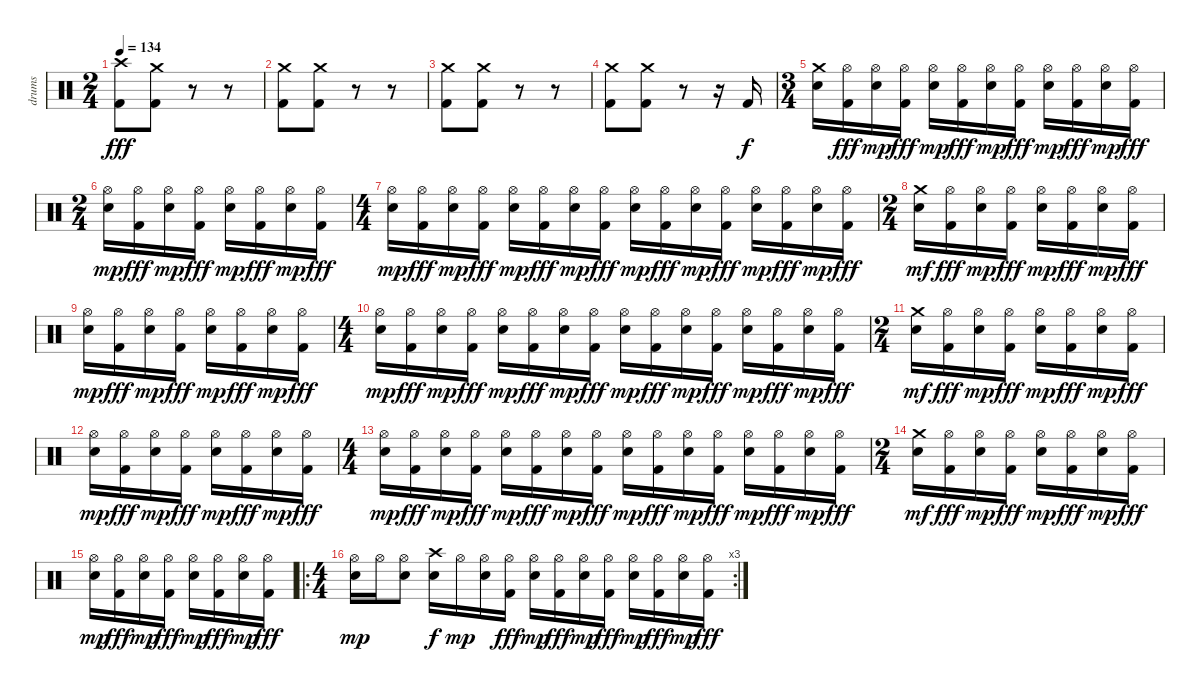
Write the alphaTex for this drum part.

\track ("drums" "drums") {instrument percussion}
\staff {score}
\articulation defaults
\ts (2 4)
\tempo 134
\clef neutral
\ks c
("Crash high (hit)" "Kick (hit) 2").8{dy fff} ("Crash medium (hit)" "Kick (hit) 2").8 r.8 r.8 |
("Crash medium (hit)" "Kick (hit) 2").8 ("Crash medium (hit)" "Kick (hit) 2").8 r.8 r.8 |
("Crash medium (hit)" "Kick (hit) 2").8 ("Crash medium (hit)" "Kick (hit) 2").8 r.8 r.8 |
("Crash medium (hit)" "Kick (hit) 2").8 ("Crash medium (hit)" "Kick (hit) 2").8 r.8 r.16 "Kick (hit) 2".16{dy f} |
\ts (3 4)
("Crash medium (hit)" "Snare (hit) 2").16 ("Hi-Hat (open)" "Kick (hit) 2").16{dy fff} ("Hi-Hat (open)" "Snare (hit) 2").16{dy mp} ("Hi-Hat (open)" "Kick (hit) 2").16{dy fff} ("Hi-Hat (open)" "Snare (hit) 2").16{dy mp} ("Hi-Hat (open)" "Kick (hit) 2").16{dy fff} ("Hi-Hat (open)" "Snare (hit) 2").16{dy mp} ("Hi-Hat (open)" "Kick (hit) 2").16{dy fff} ("Hi-Hat (open)" "Snare (hit) 2").16{dy mp} ("Hi-Hat (open)" "Kick (hit) 2").16{dy fff} ("Hi-Hat (open)" "Snare (hit) 2").16{dy mp} ("Hi-Hat (open)" "Kick (hit) 2").16{dy fff} |
\ts (2 4)
("Hi-Hat (open)" "Snare (hit) 2").16{dy mp} ("Hi-Hat (open)" "Kick (hit) 2").16{dy fff} ("Hi-Hat (open)" "Snare (hit) 2").16{dy mp} ("Hi-Hat (open)" "Kick (hit) 2").16{dy fff} ("Hi-Hat (open)" "Snare (hit) 2").16{dy mp} ("Hi-Hat (open)" "Kick (hit) 2").16{dy fff} ("Hi-Hat (open)" "Snare (hit) 2").16{dy mp} ("Hi-Hat (open)" "Kick (hit) 2").16{dy fff} |
\ts (4 4)
("Hi-Hat (open)" "Snare (hit) 2").16{dy mp} ("Hi-Hat (open)" "Kick (hit) 2").16{dy fff} ("Hi-Hat (open)" "Snare (hit) 2").16{dy mp} ("Hi-Hat (open)" "Kick (hit) 2").16{dy fff} ("Hi-Hat (open)" "Snare (hit) 2").16{dy mp} ("Hi-Hat (open)" "Kick (hit) 2").16{dy fff} ("Hi-Hat (open)" "Snare (hit) 2").16{dy mp} ("Hi-Hat (open)" "Kick (hit) 2").16{dy fff} ("Hi-Hat (open)" "Snare (hit) 2").16{dy mp} ("Hi-Hat (open)" "Kick (hit) 2").16{dy fff} ("Hi-Hat (open)" "Snare (hit) 2").16{dy mp} ("Hi-Hat (open)" "Kick (hit) 2").16{dy fff} ("Hi-Hat (open)" "Snare (hit) 2").16{dy mp} ("Hi-Hat (open)" "Kick (hit) 2").16{dy fff} ("Hi-Hat (open)" "Snare (hit) 2").16{dy mp} ("Hi-Hat (open)" "Kick (hit) 2").16{dy fff} |
\ts (2 4)
("Crash medium (hit)" "Snare (hit) 2").16{dy mf} ("Hi-Hat (open)" "Kick (hit) 2").16{dy fff} ("Hi-Hat (open)" "Snare (hit) 2").16{dy mp} ("Hi-Hat (open)" "Kick (hit) 2").16{dy fff} ("Hi-Hat (open)" "Snare (hit) 2").16{dy mp} ("Hi-Hat (open)" "Kick (hit) 2").16{dy fff} ("Hi-Hat (open)" "Snare (hit) 2").16{dy mp} ("Hi-Hat (open)" "Kick (hit) 2").16{dy fff} |
("Hi-Hat (open)" "Snare (hit) 2").16{dy mp} ("Hi-Hat (open)" "Kick (hit) 2").16{dy fff} ("Hi-Hat (open)" "Snare (hit) 2").16{dy mp} ("Hi-Hat (open)" "Kick (hit) 2").16{dy fff} ("Hi-Hat (open)" "Snare (hit) 2").16{dy mp} ("Hi-Hat (open)" "Kick (hit) 2").16{dy fff} ("Hi-Hat (open)" "Snare (hit) 2").16{dy mp} ("Hi-Hat (open)" "Kick (hit) 2").16{dy fff} |
\ts (4 4)
("Hi-Hat (open)" "Snare (hit) 2").16{dy mp} ("Hi-Hat (open)" "Kick (hit) 2").16{dy fff} ("Hi-Hat (open)" "Snare (hit) 2").16{dy mp} ("Hi-Hat (open)" "Kick (hit) 2").16{dy fff} ("Hi-Hat (open)" "Snare (hit) 2").16{dy mp} ("Hi-Hat (open)" "Kick (hit) 2").16{dy fff} ("Hi-Hat (open)" "Snare (hit) 2").16{dy mp} ("Hi-Hat (open)" "Kick (hit) 2").16{dy fff} ("Hi-Hat (open)" "Snare (hit) 2").16{dy mp} ("Hi-Hat (open)" "Kick (hit) 2").16{dy fff} ("Hi-Hat (open)" "Snare (hit) 2").16{dy mp} ("Hi-Hat (open)" "Kick (hit) 2").16{dy fff} ("Hi-Hat (open)" "Snare (hit) 2").16{dy mp} ("Hi-Hat (open)" "Kick (hit) 2").16{dy fff} ("Hi-Hat (open)" "Snare (hit) 2").16{dy mp} ("Hi-Hat (open)" "Kick (hit) 2").16{dy fff} |
\ts (2 4)
("Crash medium (hit)" "Snare (hit) 2").16{dy mf} ("Hi-Hat (open)" "Kick (hit) 2").16{dy fff} ("Hi-Hat (open)" "Snare (hit) 2").16{dy mp} ("Hi-Hat (open)" "Kick (hit) 2").16{dy fff} ("Hi-Hat (open)" "Snare (hit) 2").16{dy mp} ("Hi-Hat (open)" "Kick (hit) 2").16{dy fff} ("Hi-Hat (open)" "Snare (hit) 2").16{dy mp} ("Hi-Hat (open)" "Kick (hit) 2").16{dy fff} |
("Hi-Hat (open)" "Snare (hit) 2").16{dy mp} ("Hi-Hat (open)" "Kick (hit) 2").16{dy fff} ("Hi-Hat (open)" "Snare (hit) 2").16{dy mp} ("Hi-Hat (open)" "Kick (hit) 2").16{dy fff} ("Hi-Hat (open)" "Snare (hit) 2").16{dy mp} ("Hi-Hat (open)" "Kick (hit) 2").16{dy fff} ("Hi-Hat (open)" "Snare (hit) 2").16{dy mp} ("Hi-Hat (open)" "Kick (hit) 2").16{dy fff} |
\ts (4 4)
("Hi-Hat (open)" "Snare (hit) 2").16{dy mp} ("Hi-Hat (open)" "Kick (hit) 2").16{dy fff} ("Hi-Hat (open)" "Snare (hit) 2").16{dy mp} ("Hi-Hat (open)" "Kick (hit) 2").16{dy fff} ("Hi-Hat (open)" "Snare (hit) 2").16{dy mp} ("Hi-Hat (open)" "Kick (hit) 2").16{dy fff} ("Hi-Hat (open)" "Snare (hit) 2").16{dy mp} ("Hi-Hat (open)" "Kick (hit) 2").16{dy fff} ("Hi-Hat (open)" "Snare (hit) 2").16{dy mp} ("Hi-Hat (open)" "Kick (hit) 2").16{dy fff} ("Hi-Hat (open)" "Snare (hit) 2").16{dy mp} ("Hi-Hat (open)" "Kick (hit) 2").16{dy fff} ("Hi-Hat (open)" "Snare (hit) 2").16{dy mp} ("Hi-Hat (open)" "Kick (hit) 2").16{dy fff} ("Hi-Hat (open)" "Snare (hit) 2").16{dy mp} ("Hi-Hat (open)" "Kick (hit) 2").16{dy fff} |
\ts (2 4)
("Crash medium (hit)" "Snare (hit) 2").16{dy mf} ("Hi-Hat (open)" "Kick (hit) 2").16{dy fff} ("Hi-Hat (open)" "Snare (hit) 2").16{dy mp} ("Hi-Hat (open)" "Kick (hit) 2").16{dy fff} ("Hi-Hat (open)" "Snare (hit) 2").16{dy mp} ("Hi-Hat (open)" "Kick (hit) 2").16{dy fff} ("Hi-Hat (open)" "Snare (hit) 2").16{dy mp} ("Hi-Hat (open)" "Kick (hit) 2").16{dy fff} |
("Hi-Hat (open)" "Snare (hit) 2").16{dy mp} ("Hi-Hat (open)" "Kick (hit) 2").16{dy fff} ("Hi-Hat (open)" "Snare (hit) 2").16{dy mp} ("Hi-Hat (open)" "Kick (hit) 2").16{dy fff} ("Hi-Hat (open)" "Snare (hit) 2").16{dy mp} ("Hi-Hat (open)" "Kick (hit) 2").16{dy fff} ("Hi-Hat (open)" "Snare (hit) 2").16{dy mp} ("Hi-Hat (open)" "Kick (hit) 2").16{dy fff} |
\ro
\rc 3
\ts (4 4)
("Hi-Hat (open)" "Snare (hit) 2").16{dy mp} "Hi-Hat (open)".16 ("Hi-Hat (open)" "Snare (hit) 2").8 ("Crash high (hit)" "Snare (hit) 2").16{dy f} "Hi-Hat (open)".16{dy mp} ("Hi-Hat (open)" "Snare (hit) 2").16 ("Hi-Hat (open)" "Kick (hit) 2").16{dy fff} ("Hi-Hat (open)" "Snare (hit) 2").16{dy mp} ("Hi-Hat (open)" "Kick (hit) 2").16{dy fff} ("Hi-Hat (open)" "Snare (hit) 2").16{dy mp} ("Hi-Hat (open)" "Kick (hit) 2").16{dy fff} ("Hi-Hat (open)" "Snare (hit) 2").16{dy mp} ("Hi-Hat (open)" "Kick (hit) 2").16{dy fff} ("Hi-Hat (open)" "Snare (hit) 2").16{dy mp} ("Hi-Hat (open)" "Kick (hit) 2").16{dy fff}
